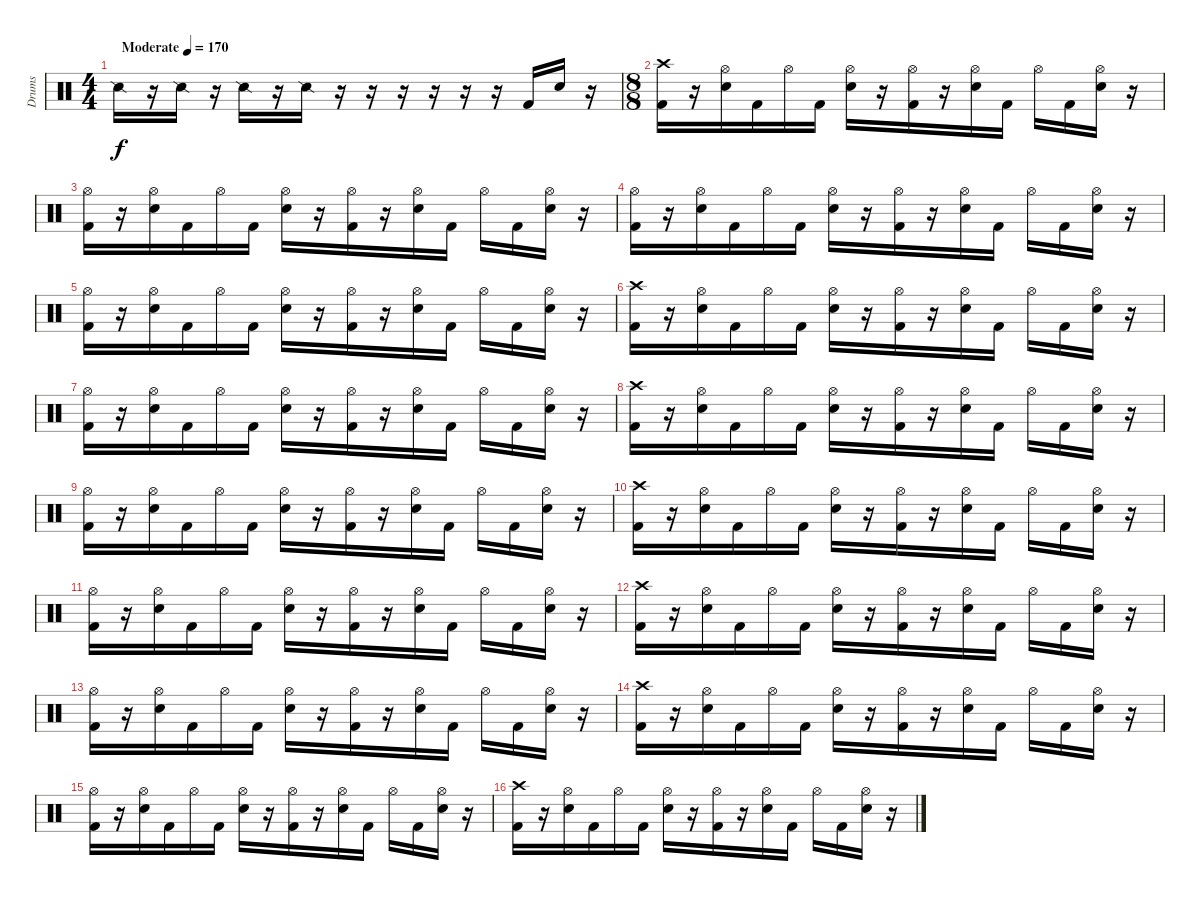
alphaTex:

\track ("Drums" "Drums") {mute instrument percussion}
\staff {score}
\articulation defaults
\ts (4 4)
\tempo (170 "Moderate")
\clef neutral
\ks c "Snare (side stick) 2".16{dy f}
r.16 "Snare (side stick) 2".16 r.16 "Snare (side stick) 2".16 r.16 "Snare (side stick) 2".16 r.16 r.16 r.16 r.16 r.16 r.16 "Kick (hit) 2".16 "Snare (hit) 2".16 r.16 |
\ts (8 8)
("Crash high (hit)" "Kick (hit) 2").16 r.16 ("Hi-Hat (open)" "Snare (hit) 2").16 "Kick (hit) 2".16 "Hi-Hat (open)".16 "Kick (hit) 2".16 ("Hi-Hat (open)" "Snare (hit) 2").16 r.16 ("Hi-Hat (open)" "Kick (hit) 2").16 r.16 ("Hi-Hat (open)" "Snare (hit) 2").16 "Kick (hit) 2".16 "Hi-Hat (open)".16 "Kick (hit) 2".16 ("Hi-Hat (open)" "Snare (hit) 2").16 r.16 |
("Hi-Hat (open)" "Kick (hit) 2").16 r.16 ("Hi-Hat (open)" "Snare (hit) 2").16 "Kick (hit) 2".16 "Hi-Hat (open)".16 "Kick (hit) 2".16 ("Hi-Hat (open)" "Snare (hit) 2").16 r.16 ("Hi-Hat (open)" "Kick (hit) 2").16 r.16 ("Hi-Hat (open)" "Snare (hit) 2").16 "Kick (hit) 2".16 "Hi-Hat (open)".16 "Kick (hit) 2".16 ("Hi-Hat (open)" "Snare (hit) 2").16 r.16 |
("Hi-Hat (open)" "Kick (hit) 2").16 r.16 ("Hi-Hat (open)" "Snare (hit) 2").16 "Kick (hit) 2".16 "Hi-Hat (open)".16 "Kick (hit) 2".16 ("Hi-Hat (open)" "Snare (hit) 2").16 r.16 ("Hi-Hat (open)" "Kick (hit) 2").16 r.16 ("Hi-Hat (open)" "Snare (hit) 2").16 "Kick (hit) 2".16 "Hi-Hat (open)".16 "Kick (hit) 2".16 ("Hi-Hat (open)" "Snare (hit) 2").16 r.16 |
("Hi-Hat (open)" "Kick (hit) 2").16 r.16 ("Hi-Hat (open)" "Snare (hit) 2").16 "Kick (hit) 2".16 "Hi-Hat (open)".16 "Kick (hit) 2".16 ("Hi-Hat (open)" "Snare (hit) 2").16 r.16 ("Hi-Hat (open)" "Kick (hit) 2").16 r.16 ("Hi-Hat (open)" "Snare (hit) 2").16 "Kick (hit) 2".16 "Hi-Hat (open)".16 "Kick (hit) 2".16 ("Hi-Hat (open)" "Snare (hit) 2").16 r.16 |
("Crash high (hit)" "Kick (hit) 2").16 r.16 ("Hi-Hat (open)" "Snare (hit) 2").16 "Kick (hit) 2".16 "Hi-Hat (open)".16 "Kick (hit) 2".16 ("Hi-Hat (open)" "Snare (hit) 2").16 r.16 ("Hi-Hat (open)" "Kick (hit) 2").16 r.16 ("Hi-Hat (open)" "Snare (hit) 2").16 "Kick (hit) 2".16 "Hi-Hat (open)".16 "Kick (hit) 2".16 ("Hi-Hat (open)" "Snare (hit) 2").16 r.16 |
("Hi-Hat (open)" "Kick (hit) 2").16 r.16 ("Hi-Hat (open)" "Snare (hit) 2").16 "Kick (hit) 2".16 "Hi-Hat (open)".16 "Kick (hit) 2".16 ("Hi-Hat (open)" "Snare (hit) 2").16 r.16 ("Hi-Hat (open)" "Kick (hit) 2").16 r.16 ("Hi-Hat (open)" "Snare (hit) 2").16 "Kick (hit) 2".16 "Hi-Hat (open)".16 "Kick (hit) 2".16 ("Hi-Hat (open)" "Snare (hit) 2").16 r.16 |
("Crash high (hit)" "Kick (hit) 2").16 r.16 ("Hi-Hat (open)" "Snare (hit) 2").16 "Kick (hit) 2".16 "Hi-Hat (open)".16 "Kick (hit) 2".16 ("Hi-Hat (open)" "Snare (hit) 2").16 r.16 ("Hi-Hat (open)" "Kick (hit) 2").16 r.16 ("Hi-Hat (open)" "Snare (hit) 2").16 "Kick (hit) 2".16 "Hi-Hat (open)".16 "Kick (hit) 2".16 ("Hi-Hat (open)" "Snare (hit) 2").16 r.16 |
("Hi-Hat (open)" "Kick (hit) 2").16 r.16 ("Hi-Hat (open)" "Snare (hit) 2").16 "Kick (hit) 2".16 "Hi-Hat (open)".16 "Kick (hit) 2".16 ("Hi-Hat (open)" "Snare (hit) 2").16 r.16 ("Hi-Hat (open)" "Kick (hit) 2").16 r.16 ("Hi-Hat (open)" "Snare (hit) 2").16 "Kick (hit) 2".16 "Hi-Hat (open)".16 "Kick (hit) 2".16 ("Hi-Hat (open)" "Snare (hit) 2").16 r.16 |
("Crash high (hit)" "Kick (hit) 2").16 r.16 ("Hi-Hat (open)" "Snare (hit) 2").16 "Kick (hit) 2".16 "Hi-Hat (open)".16 "Kick (hit) 2".16 ("Hi-Hat (open)" "Snare (hit) 2").16 r.16 ("Hi-Hat (open)" "Kick (hit) 2").16 r.16 ("Hi-Hat (open)" "Snare (hit) 2").16 "Kick (hit) 2".16 "Hi-Hat (open)".16 "Kick (hit) 2".16 ("Hi-Hat (open)" "Snare (hit) 2").16 r.16 |
("Hi-Hat (open)" "Kick (hit) 2").16 r.16 ("Hi-Hat (open)" "Snare (hit) 2").16 "Kick (hit) 2".16 "Hi-Hat (open)".16 "Kick (hit) 2".16 ("Hi-Hat (open)" "Snare (hit) 2").16 r.16 ("Hi-Hat (open)" "Kick (hit) 2").16 r.16 ("Hi-Hat (open)" "Snare (hit) 2").16 "Kick (hit) 2".16 "Hi-Hat (open)".16 "Kick (hit) 2".16 ("Hi-Hat (open)" "Snare (hit) 2").16 r.16 |
("Crash high (hit)" "Kick (hit) 2").16 r.16 ("Hi-Hat (open)" "Snare (hit) 2").16 "Kick (hit) 2".16 "Hi-Hat (open)".16 "Kick (hit) 2".16 ("Hi-Hat (open)" "Snare (hit) 2").16 r.16 ("Hi-Hat (open)" "Kick (hit) 2").16 r.16 ("Hi-Hat (open)" "Snare (hit) 2").16 "Kick (hit) 2".16 "Hi-Hat (open)".16 "Kick (hit) 2".16 ("Hi-Hat (open)" "Snare (hit) 2").16 r.16 |
("Hi-Hat (open)" "Kick (hit) 2").16 r.16 ("Hi-Hat (open)" "Snare (hit) 2").16 "Kick (hit) 2".16 "Hi-Hat (open)".16 "Kick (hit) 2".16 ("Hi-Hat (open)" "Snare (hit) 2").16 r.16 ("Hi-Hat (open)" "Kick (hit) 2").16 r.16 ("Hi-Hat (open)" "Snare (hit) 2").16 "Kick (hit) 2".16 "Hi-Hat (open)".16 "Kick (hit) 2".16 ("Hi-Hat (open)" "Snare (hit) 2").16 r.16 |
("Crash high (hit)" "Kick (hit) 2").16 r.16 ("Hi-Hat (open)" "Snare (hit) 2").16 "Kick (hit) 2".16 "Hi-Hat (open)".16 "Kick (hit) 2".16 ("Hi-Hat (open)" "Snare (hit) 2").16 r.16 ("Hi-Hat (open)" "Kick (hit) 2").16 r.16 ("Hi-Hat (open)" "Snare (hit) 2").16 "Kick (hit) 2".16 "Hi-Hat (open)".16 "Kick (hit) 2".16 ("Hi-Hat (open)" "Snare (hit) 2").16 r.16 |
("Hi-Hat (open)" "Kick (hit) 2").16 r.16 ("Hi-Hat (open)" "Snare (hit) 2").16 "Kick (hit) 2".16 "Hi-Hat (open)".16 "Kick (hit) 2".16 ("Hi-Hat (open)" "Snare (hit) 2").16 r.16 ("Hi-Hat (open)" "Kick (hit) 2").16 r.16 ("Hi-Hat (open)" "Snare (hit) 2").16 "Kick (hit) 2".16 "Hi-Hat (open)".16 "Kick (hit) 2".16 ("Hi-Hat (open)" "Snare (hit) 2").16 r.16 |
("Crash high (hit)" "Kick (hit) 2").16 r.16 ("Hi-Hat (open)" "Snare (hit) 2").16 "Kick (hit) 2".16 "Hi-Hat (open)".16 "Kick (hit) 2".16 ("Hi-Hat (open)" "Snare (hit) 2").16 r.16 ("Hi-Hat (open)" "Kick (hit) 2").16 r.16 ("Hi-Hat (open)" "Snare (hit) 2").16 "Kick (hit) 2".16 "Hi-Hat (open)".16 "Kick (hit) 2".16 ("Hi-Hat (open)" "Snare (hit) 2").16 r.16
